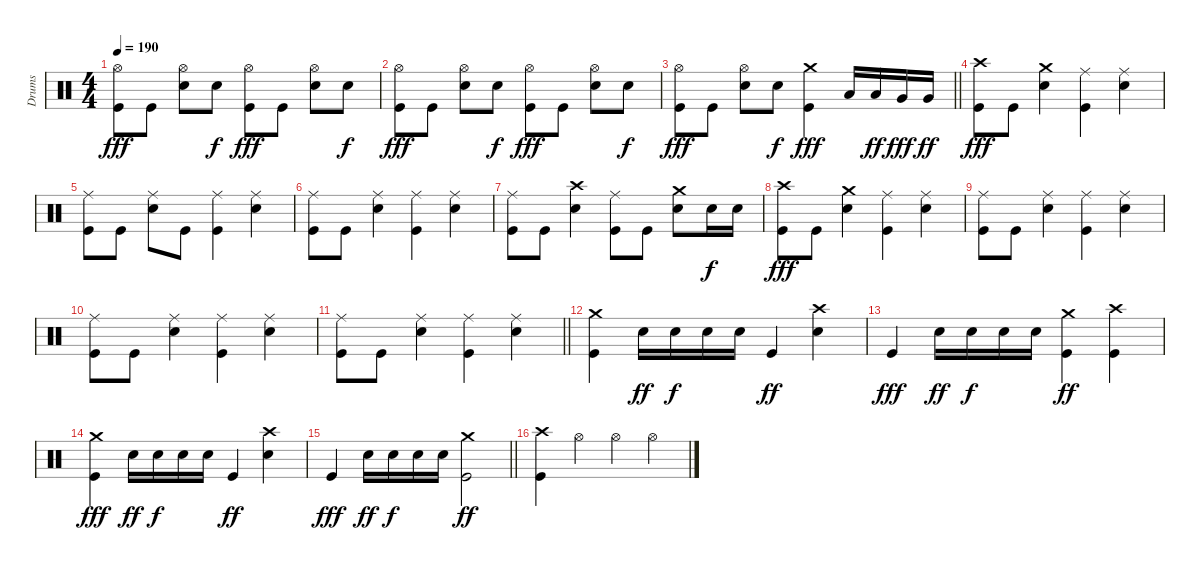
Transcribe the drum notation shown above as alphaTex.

\track ("Drums" "Drums") {instrument percussion}
\staff {score}
\articulation defaults
\ts (4 4)
\tempo 190
\clef neutral
\ks c
("Hi-Hat (open)" "Kick (hit)").8{dy fff} "Kick (hit)".8 ("Hi-Hat (open)" "Snare (hit) 2").8 "Snare (hit) 2".8{dy f} ("Hi-Hat (open)" "Kick (hit)").8{dy fff} "Kick (hit)".8 ("Hi-Hat (open)" "Snare (hit) 2").8 "Snare (hit) 2".8{dy f} |
("Hi-Hat (open)" "Kick (hit)").8{dy fff} "Kick (hit)".8 ("Hi-Hat (open)" "Snare (hit) 2").8 "Snare (hit) 2".8{dy f} ("Hi-Hat (open)" "Kick (hit)").8{dy fff} "Kick (hit)".8 ("Hi-Hat (open)" "Snare (hit) 2").8 "Snare (hit) 2".8{dy f} |
\barLineRight lightlight
("Hi-Hat (open)" "Kick (hit)").8{dy fff} "Kick (hit)".8 ("Hi-Hat (open)" "Snare (hit) 2").8 "Snare (hit) 2".8{dy f} ("Crash medium (hit)" "Kick (hit)").4{dy fff} "Low Tom (hit)".16 "Low Tom (hit)".16{dy ff} "Very Low Tom (hit)".16{dy fff} "Very Low Tom (hit)".16{dy ff} |
("Crash high (hit)" "Kick (hit)").8{dy fff} "Kick (hit)".8 ("Crash medium (hit)" "Snare (hit) 2").4 ("Ride (middle)" "Kick (hit)").4 ("Ride (middle)" "Snare (hit) 2").4 |
("Ride (middle)" "Kick (hit)").8 "Kick (hit)".8 ("Ride (middle)" "Snare (hit) 2").8 "Kick (hit)".8 ("Ride (middle)" "Kick (hit)").4 ("Ride (middle)" "Snare (hit) 2").4 |
("Ride (middle)" "Kick (hit)").8 "Kick (hit)".8 ("Ride (middle)" "Snare (hit) 2").4 ("Ride (middle)" "Kick (hit)").4 ("Ride (middle)" "Snare (hit) 2").4 |
("Ride (middle)" "Kick (hit)").8 "Kick (hit)".8 ("Crash high (hit)" "Snare (hit) 2").4 ("Ride (middle)" "Kick (hit)").8 "Kick (hit)".8 ("Crash medium (hit)" "Snare (hit) 2").8 "Snare (hit) 2".16{dy f} "Snare (hit) 2".16 |
("Crash high (hit)" "Kick (hit)").8{dy fff} "Kick (hit)".8 ("Crash medium (hit)" "Snare (hit) 2").4 ("Ride (middle)" "Kick (hit)").4 ("Ride (middle)" "Snare (hit) 2").4 |
("Ride (middle)" "Kick (hit)").8 "Kick (hit)".8 ("Ride (middle)" "Snare (hit) 2").4 ("Ride (middle)" "Kick (hit)").4 ("Ride (middle)" "Snare (hit) 2").4 |
("Ride (middle)" "Kick (hit)").8 "Kick (hit)".8 ("Ride (middle)" "Snare (hit) 2").4 ("Ride (middle)" "Kick (hit)").4 ("Ride (middle)" "Snare (hit) 2").4 |
\barLineRight lightlight
("Ride (middle)" "Kick (hit)").8 "Kick (hit)".8 ("Ride (middle)" "Snare (hit) 2").4 ("Ride (middle)" "Kick (hit)").4 ("Ride (middle)" "Snare (hit) 2").4 |
("Crash medium (hit)" "Kick (hit)").4 "Snare (hit) 2".16{dy ff} "Snare (hit) 2".16{dy f} "Snare (hit) 2".16 "Snare (hit) 2".16 "Kick (hit)".4{dy ff} ("Crash high (hit)" "Snare (hit) 2").4 |
"Kick (hit)".4{dy fff} "Snare (hit) 2".16{dy ff} "Snare (hit) 2".16{dy f} "Snare (hit) 2".16 "Snare (hit) 2".16 ("Crash medium (hit)" "Kick (hit)").4{dy ff} ("Crash high (hit)" "Kick (hit)").4 |
("Crash medium (hit)" "Kick (hit)").4{dy fff} "Snare (hit) 2".16{dy ff} "Snare (hit) 2".16{dy f} "Snare (hit) 2".16 "Snare (hit) 2".16 "Kick (hit)".4{dy ff} ("Crash high (hit)" "Snare (hit) 2").4 |
\barLineRight lightlight "Kick (hit)".4{dy fff} "Snare (hit) 2".16{dy ff} "Snare (hit) 2".16{dy f} "Snare (hit) 2".16 "Snare (hit) 2".16
("Crash medium (hit)" "Kick (hit)").2{dy ff} |
("Crash high (hit)" "Kick (hit)").4 "Hi-Hat (open)".4 "Hi-Hat (open)".4 "Hi-Hat (open)".4
